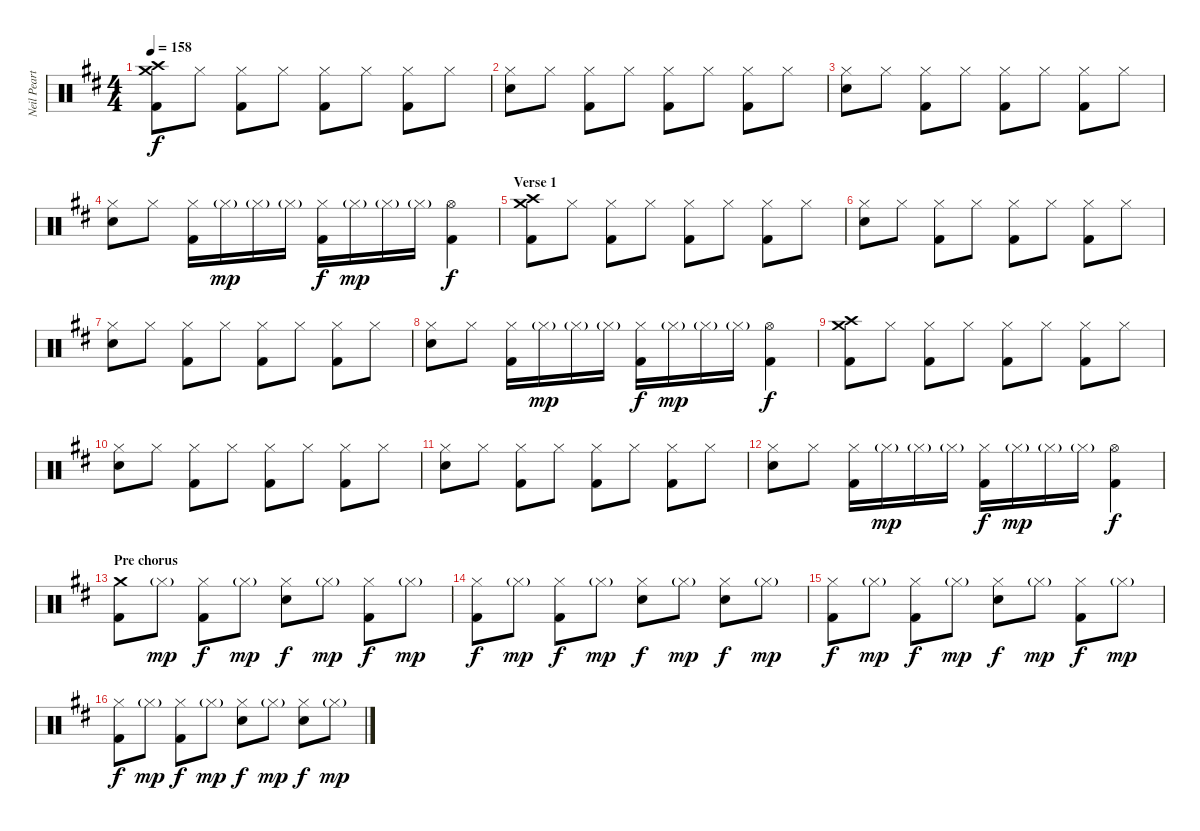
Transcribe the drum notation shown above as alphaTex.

\track ("Neil Peart (drums)" "Neil Peart") {instrument percussion}
\staff {score}
\articulation defaults
\ts (4 4)
\tempo 158
\clef neutral
\ks bminor
("Crash high (hit)" "Crash medium (hit)" "Kick (hit) 2").8{dy f} "Hi-Hat (closed)".8 ("Hi-Hat (closed)" "Kick (hit) 2").8 "Hi-Hat (closed)".8 ("Hi-Hat (closed)" "Kick (hit) 2").8 "Hi-Hat (closed)".8 ("Hi-Hat (closed)" "Kick (hit) 2").8 "Hi-Hat (closed)".8 |
("Hi-Hat (closed)" "Electric Snare (hit)").8 "Hi-Hat (closed)".8 ("Hi-Hat (closed)" "Kick (hit) 2").8 "Hi-Hat (closed)".8 ("Hi-Hat (closed)" "Kick (hit) 2").8 "Hi-Hat (closed)".8 ("Hi-Hat (closed)" "Kick (hit) 2").8 "Hi-Hat (closed)".8 |
("Hi-Hat (closed)" "Electric Snare (hit)").8 "Hi-Hat (closed)".8 ("Hi-Hat (closed)" "Kick (hit) 2").8 "Hi-Hat (closed)".8 ("Hi-Hat (closed)" "Kick (hit) 2").8 "Hi-Hat (closed)".8 ("Hi-Hat (closed)" "Kick (hit) 2").8 "Hi-Hat (closed)".8 |
("Hi-Hat (closed)" "Electric Snare (hit)").8 "Hi-Hat (closed)".8 ("Hi-Hat (closed)" "Kick (hit) 2").16 "Hi-Hat (closed)"{g}.16{dy mp} "Hi-Hat (closed)"{g}.16 "Hi-Hat (closed)"{g}.16 ("Hi-Hat (closed)" "Kick (hit) 2").16{dy f} "Hi-Hat (closed)"{g}.16{dy mp} "Hi-Hat (closed)"{g}.16 "Hi-Hat (closed)"{g}.16 ("Hi-Hat (open)" "Kick (hit) 2").4{dy f} |
\section ("" "Verse 1")
("Crash high (hit)" "Crash medium (hit)" "Kick (hit) 2").8 "Hi-Hat (closed)".8 ("Hi-Hat (closed)" "Kick (hit) 2").8 "Hi-Hat (closed)".8 ("Hi-Hat (closed)" "Kick (hit) 2").8 "Hi-Hat (closed)".8 ("Hi-Hat (closed)" "Kick (hit) 2").8 "Hi-Hat (closed)".8 |
("Hi-Hat (closed)" "Electric Snare (hit)").8 "Hi-Hat (closed)".8 ("Hi-Hat (closed)" "Kick (hit) 2").8 "Hi-Hat (closed)".8 ("Hi-Hat (closed)" "Kick (hit) 2").8 "Hi-Hat (closed)".8 ("Hi-Hat (closed)" "Kick (hit) 2").8 "Hi-Hat (closed)".8 |
("Hi-Hat (closed)" "Electric Snare (hit)").8 "Hi-Hat (closed)".8 ("Hi-Hat (closed)" "Kick (hit) 2").8 "Hi-Hat (closed)".8 ("Hi-Hat (closed)" "Kick (hit) 2").8 "Hi-Hat (closed)".8 ("Hi-Hat (closed)" "Kick (hit) 2").8 "Hi-Hat (closed)".8 |
("Hi-Hat (closed)" "Electric Snare (hit)").8 "Hi-Hat (closed)".8 ("Hi-Hat (closed)" "Kick (hit) 2").16 "Hi-Hat (closed)"{g}.16{dy mp} "Hi-Hat (closed)"{g}.16 "Hi-Hat (closed)"{g}.16 ("Hi-Hat (closed)" "Kick (hit) 2").16{dy f} "Hi-Hat (closed)"{g}.16{dy mp} "Hi-Hat (closed)"{g}.16 "Hi-Hat (closed)"{g}.16 ("Hi-Hat (open)" "Kick (hit) 2").4{dy f} |
("Crash high (hit)" "Crash medium (hit)" "Kick (hit) 2").8 "Hi-Hat (closed)".8 ("Hi-Hat (closed)" "Kick (hit) 2").8 "Hi-Hat (closed)".8 ("Hi-Hat (closed)" "Kick (hit) 2").8 "Hi-Hat (closed)".8 ("Hi-Hat (closed)" "Kick (hit) 2").8 "Hi-Hat (closed)".8 |
("Hi-Hat (closed)" "Electric Snare (hit)").8 "Hi-Hat (closed)".8 ("Hi-Hat (closed)" "Kick (hit) 2").8 "Hi-Hat (closed)".8 ("Hi-Hat (closed)" "Kick (hit) 2").8 "Hi-Hat (closed)".8 ("Hi-Hat (closed)" "Kick (hit) 2").8 "Hi-Hat (closed)".8 |
("Hi-Hat (closed)" "Electric Snare (hit)").8 "Hi-Hat (closed)".8 ("Hi-Hat (closed)" "Kick (hit) 2").8 "Hi-Hat (closed)".8 ("Hi-Hat (closed)" "Kick (hit) 2").8 "Hi-Hat (closed)".8 ("Hi-Hat (closed)" "Kick (hit) 2").8 "Hi-Hat (closed)".8 |
("Hi-Hat (closed)" "Electric Snare (hit)").8 "Hi-Hat (closed)".8 ("Hi-Hat (closed)" "Kick (hit) 2").16 "Hi-Hat (closed)"{g}.16{dy mp} "Hi-Hat (closed)"{g}.16 "Hi-Hat (closed)"{g}.16 ("Hi-Hat (closed)" "Kick (hit) 2").16{dy f} "Hi-Hat (closed)"{g}.16{dy mp} "Hi-Hat (closed)"{g}.16 "Hi-Hat (closed)"{g}.16 ("Hi-Hat (open)" "Kick (hit) 2").4{dy f} |
\section ("" "Pre chorus ")
("Crash medium (hit)" "Kick (hit) 2").8 "Hi-Hat (closed)"{g}.8{dy mp} ("Hi-Hat (closed)" "Kick (hit) 2").8{dy f} "Hi-Hat (closed)"{g}.8{dy mp} ("Hi-Hat (closed)" "Electric Snare (hit)").8{dy f} "Hi-Hat (closed)"{g}.8{dy mp} ("Hi-Hat (closed)" "Kick (hit) 2").8{dy f} "Hi-Hat (closed)"{g}.8{dy mp} |
("Hi-Hat (closed)" "Kick (hit) 2").8{dy f} "Hi-Hat (closed)"{g}.8{dy mp} ("Hi-Hat (closed)" "Kick (hit) 2").8{dy f} "Hi-Hat (closed)"{g}.8{dy mp} ("Hi-Hat (closed)" "Electric Snare (hit)").8{dy f} "Hi-Hat (closed)"{g}.8{dy mp} ("Hi-Hat (closed)" "Electric Snare (hit)").8{dy f} "Hi-Hat (closed)"{g}.8{dy mp} |
("Hi-Hat (closed)" "Kick (hit) 2").8{dy f} "Hi-Hat (closed)"{g}.8{dy mp} ("Hi-Hat (closed)" "Kick (hit) 2").8{dy f} "Hi-Hat (closed)"{g}.8{dy mp} ("Hi-Hat (closed)" "Electric Snare (hit)").8{dy f} "Hi-Hat (closed)"{g}.8{dy mp} ("Hi-Hat (closed)" "Kick (hit) 2").8{dy f} "Hi-Hat (closed)"{g}.8{dy mp} |
("Hi-Hat (closed)" "Kick (hit) 2").8{dy f} "Hi-Hat (closed)"{g}.8{dy mp} ("Hi-Hat (closed)" "Kick (hit) 2").8{dy f} "Hi-Hat (closed)"{g}.8{dy mp} ("Hi-Hat (closed)" "Electric Snare (hit)").8{dy f} "Hi-Hat (closed)"{g}.8{dy mp} ("Hi-Hat (closed)" "Electric Snare (hit)").8{dy f} "Hi-Hat (closed)"{g}.8{dy mp}
